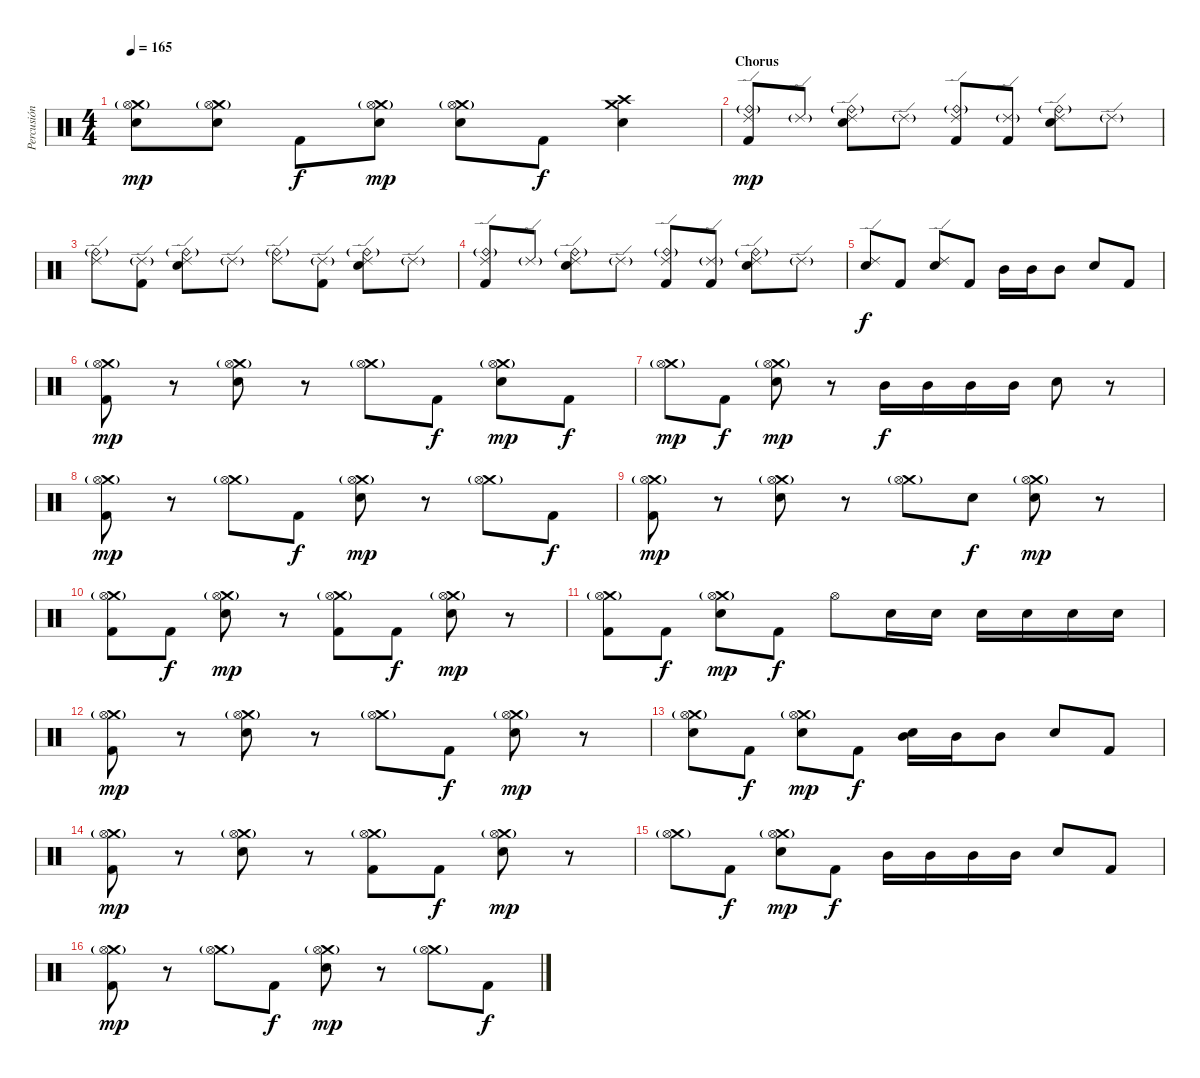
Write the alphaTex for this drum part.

\track ("Percusión" "Percusión") {instrument percussion}
\staff {score}
\articulation defaults
\ts (4 4)
\tempo 165
\clef neutral
\ks c
("Crash medium (hit)"{g} "Hi-Hat (open)" "Electric Snare (hit)").8{dy mp} ("Crash medium (hit)"{g} "Hi-Hat (open)" "Electric Snare (hit)").8 "Kick (hit) 2".8{dy f} ("Crash medium (hit)"{g} "Hi-Hat (open)" "Electric Snare (hit)").8{dy mp} ("Crash medium (hit)"{g} "Hi-Hat (open)" "Electric Snare (hit)").8 "Kick (hit) 2".8{dy f} ("Crash high (hit)" "Crash medium (hit)" "Electric Snare (hit)").4 |
\section ("" "Chorus")
("Ride (bell)"{g} "Ride (edge) 2" "Kick (hit) 2").8{dy mp} "Ride (edge) 2"{g}.8 ("Ride (bell)"{g} "Ride (edge) 2" "Electric Snare (hit)").8 "Ride (edge) 2"{g}.8 ("Ride (bell)"{g} "Ride (edge) 2" "Kick (hit) 2").8 ("Ride (edge) 2"{g} "Kick (hit) 2").8 ("Ride (bell)"{g} "Ride (edge) 2" "Electric Snare (hit)").8 "Ride (edge) 2"{g}.8 |
("Ride (bell)"{g} "Ride (edge) 2").8 ("Ride (edge) 2"{g} "Kick (hit) 2").8 ("Ride (bell)"{g} "Ride (edge) 2" "Electric Snare (hit)").8 "Ride (edge) 2"{g}.8 ("Ride (bell)"{g} "Ride (edge) 2").8 ("Ride (edge) 2"{g} "Kick (hit) 2").8 ("Ride (bell)"{g} "Ride (edge) 2" "Electric Snare (hit)").8 "Ride (edge) 2"{g}.8 |
("Ride (bell)"{g} "Ride (edge) 2" "Kick (hit) 2").8 "Ride (edge) 2"{g}.8 ("Ride (bell)"{g} "Ride (edge) 2" "Electric Snare (hit)").8 "Ride (edge) 2"{g}.8 ("Ride (bell)"{g} "Ride (edge) 2" "Kick (hit) 2").8 ("Ride (edge) 2"{g} "Kick (hit) 2").8 ("Ride (bell)"{g} "Ride (edge) 2" "Electric Snare (hit)").8 "Ride (edge) 2"{g}.8 |
("Ride (edge) 2" "Electric Snare (hit)").8{dy f} "Kick (hit) 2".8 ("Ride (edge) 2" "Electric Snare (hit)").8 "Kick (hit) 2".8 "Mid Tom (hit)".16 "Mid Tom (hit)".16 "Mid Tom (hit)".8 "Electric Snare (hit)".8 "Kick (hit) 2".8 |
("Crash medium (hit)"{g} "Hi-Hat (open)" "Kick (hit) 2").8{dy mp} r.8 ("Crash medium (hit)"{g} "Hi-Hat (open)" "Electric Snare (hit)").8 r.8 ("Crash medium (hit)"{g} "Hi-Hat (open)").8 "Kick (hit) 2".8{dy f} ("Crash medium (hit)"{g} "Hi-Hat (open)" "Electric Snare (hit)").8{dy mp} "Kick (hit) 2".8{dy f} |
("Crash medium (hit)"{g} "Hi-Hat (open)").8{dy mp} "Kick (hit) 2".8{dy f} ("Crash medium (hit)"{g} "Hi-Hat (open)" "Electric Snare (hit)").8{dy mp} r.8 "Mid Tom (hit)".16{dy f} "Mid Tom (hit)".16 "Mid Tom (hit)".16 "Mid Tom (hit)".16 "Electric Snare (hit)".8 r.8 |
("Crash medium (hit)"{g} "Hi-Hat (open)" "Kick (hit) 2").8{dy mp} r.8 ("Crash medium (hit)"{g} "Hi-Hat (open)").8 "Kick (hit) 2".8{dy f} ("Crash medium (hit)"{g} "Hi-Hat (open)" "Electric Snare (hit)").8{dy mp} r.8 ("Crash medium (hit)"{g} "Hi-Hat (open)").8 "Kick (hit) 2".8{dy f} |
("Crash medium (hit)"{g} "Hi-Hat (open)" "Kick (hit) 2").8{dy mp} r.8 ("Crash medium (hit)"{g} "Hi-Hat (open)" "Electric Snare (hit)").8 r.8 ("Crash medium (hit)"{g} "Hi-Hat (open)").8 "Electric Snare (hit)".8{dy f} ("Crash medium (hit)"{g} "Hi-Hat (open)" "Electric Snare (hit)").8{dy mp} r.8 |
("Crash medium (hit)"{g} "Hi-Hat (open)" "Kick (hit) 2").8 "Kick (hit) 2".8{dy f} ("Crash medium (hit)"{g} "Hi-Hat (open)" "Electric Snare (hit)").8{dy mp} r.8 ("Crash medium (hit)"{g} "Hi-Hat (open)" "Kick (hit) 2").8 "Kick (hit) 2".8{dy f} ("Crash medium (hit)"{g} "Hi-Hat (open)" "Electric Snare (hit)").8{dy mp} r.8 |
("Crash medium (hit)"{g} "Hi-Hat (open)" "Kick (hit) 2").8 "Kick (hit) 2".8{dy f} ("Crash medium (hit)"{g} "Hi-Hat (open)" "Electric Snare (hit)").8{dy mp} "Kick (hit) 2".8{dy f} "Hi-Hat (open)".8 "Electric Snare (hit)".16 "Electric Snare (hit)".16 "Electric Snare (hit)".16 "Electric Snare (hit)".16 "Electric Snare (hit)".16 "Electric Snare (hit)".16 |
("Crash medium (hit)"{g} "Hi-Hat (open)" "Kick (hit) 2").8{dy mp} r.8 ("Crash medium (hit)"{g} "Hi-Hat (open)" "Electric Snare (hit)").8 r.8 ("Crash medium (hit)"{g} "Hi-Hat (open)").8 "Kick (hit) 2".8{dy f} ("Crash medium (hit)"{g} "Hi-Hat (open)" "Electric Snare (hit)").8{dy mp} r.8 |
("Crash medium (hit)"{g} "Hi-Hat (open)" "Electric Snare (hit)").8 "Kick (hit) 2".8{dy f} ("Crash medium (hit)"{g} "Hi-Hat (open)" "Electric Snare (hit)").8{dy mp} "Kick (hit) 2".8{dy f} ("Electric Snare (hit)" "Mid Tom (hit)").16 "Mid Tom (hit)".16 "Mid Tom (hit)".8 "Electric Snare (hit)".8 "Kick (hit) 2".8 |
("Crash medium (hit)"{g} "Hi-Hat (open)" "Kick (hit) 2").8{dy mp} r.8 ("Crash medium (hit)"{g} "Hi-Hat (open)" "Electric Snare (hit)").8 r.8 ("Crash medium (hit)"{g} "Hi-Hat (open)" "Kick (hit) 2").8 "Kick (hit) 2".8{dy f} ("Crash medium (hit)"{g} "Hi-Hat (open)" "Electric Snare (hit)").8{dy mp} r.8 |
("Crash medium (hit)"{g} "Hi-Hat (open)").8 "Kick (hit) 2".8{dy f} ("Crash medium (hit)"{g} "Hi-Hat (open)" "Electric Snare (hit)").8{dy mp} "Kick (hit) 2".8{dy f} "Mid Tom (hit)".16 "Mid Tom (hit)".16 "Mid Tom (hit)".16 "Mid Tom (hit)".16 "Electric Snare (hit)".8 "Kick (hit) 2".8 |
("Crash medium (hit)"{g} "Hi-Hat (open)" "Kick (hit) 2").8{dy mp} r.8 ("Crash medium (hit)"{g} "Hi-Hat (open)").8 "Kick (hit) 2".8{dy f} ("Crash medium (hit)"{g} "Hi-Hat (open)" "Electric Snare (hit)").8{dy mp} r.8 ("Crash medium (hit)"{g} "Hi-Hat (open)").8 "Kick (hit) 2".8{dy f}
